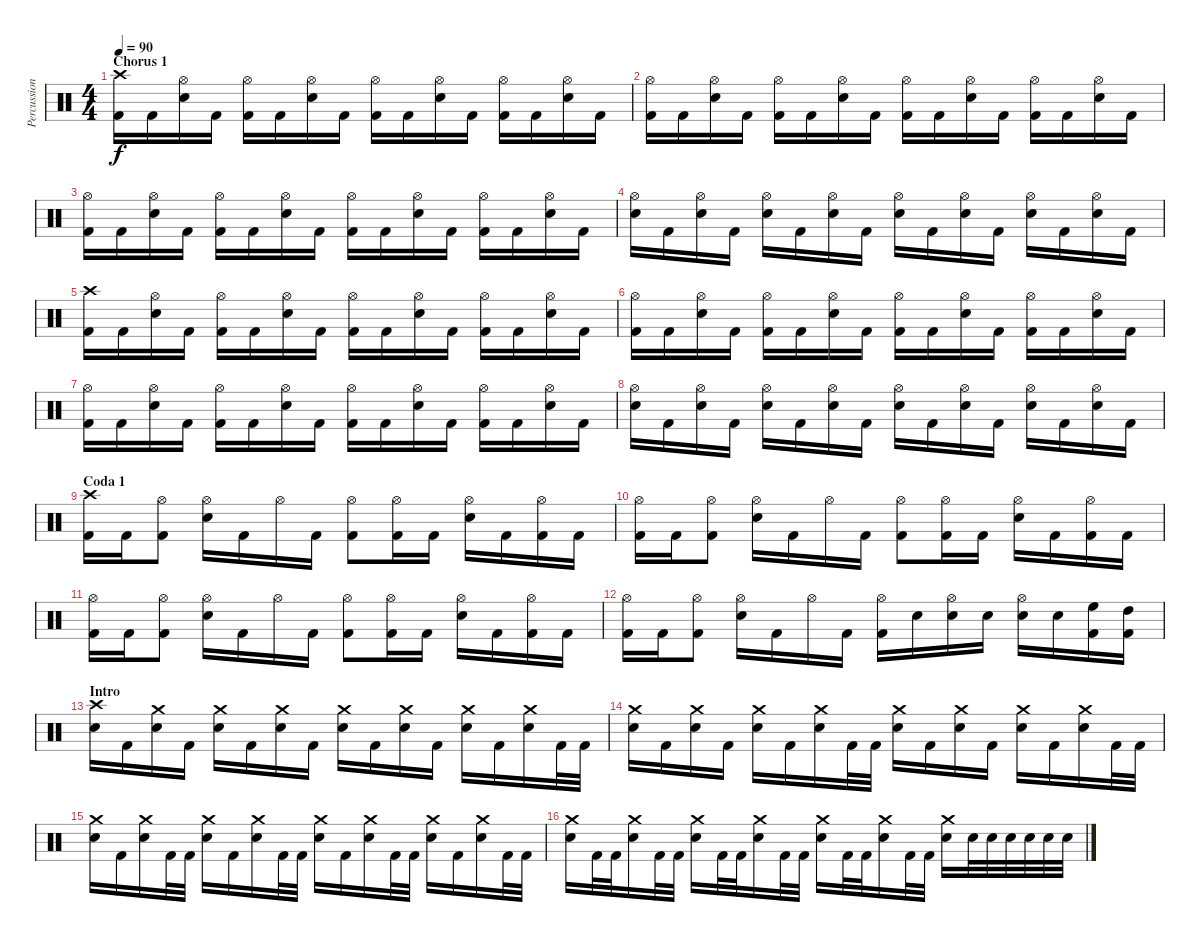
\track ("Percussion" "Percussion") {instrument percussion}
\staff {score}
\articulation defaults
\ts (4 4)
\section ("" "Chorus 1")
\tempo 90
\clef neutral
\ks c
("Kick (hit) 2" "Crash high (hit)").16{dy f} "Kick (hit) 2".16 ("Electric Snare (hit)" "Hi-Hat (open)").16 "Kick (hit) 2".16 ("Kick (hit) 2" "Hi-Hat (open)").16 "Kick (hit) 2".16 ("Electric Snare (hit)" "Hi-Hat (open)").16 "Kick (hit) 2".16 ("Kick (hit) 2" "Hi-Hat (open)").16 "Kick (hit) 2".16 ("Electric Snare (hit)" "Hi-Hat (open)").16 "Kick (hit) 2".16 ("Kick (hit) 2" "Hi-Hat (open)").16 "Kick (hit) 2".16 ("Electric Snare (hit)" "Hi-Hat (open)").16 "Kick (hit) 2".16 |
("Kick (hit) 2" "Hi-Hat (open)").16 "Kick (hit) 2".16 ("Electric Snare (hit)" "Hi-Hat (open)").16 "Kick (hit) 2".16 ("Kick (hit) 2" "Hi-Hat (open)").16 "Kick (hit) 2".16 ("Electric Snare (hit)" "Hi-Hat (open)").16 "Kick (hit) 2".16 ("Kick (hit) 2" "Hi-Hat (open)").16 "Kick (hit) 2".16 ("Electric Snare (hit)" "Hi-Hat (open)").16 "Kick (hit) 2".16 ("Kick (hit) 2" "Hi-Hat (open)").16 "Kick (hit) 2".16 ("Electric Snare (hit)" "Hi-Hat (open)").16 "Kick (hit) 2".16 |
("Kick (hit) 2" "Hi-Hat (open)").16 "Kick (hit) 2".16 ("Electric Snare (hit)" "Hi-Hat (open)").16 "Kick (hit) 2".16 ("Kick (hit) 2" "Hi-Hat (open)").16 "Kick (hit) 2".16 ("Electric Snare (hit)" "Hi-Hat (open)").16 "Kick (hit) 2".16 ("Kick (hit) 2" "Hi-Hat (open)").16 "Kick (hit) 2".16 ("Electric Snare (hit)" "Hi-Hat (open)").16 "Kick (hit) 2".16 ("Kick (hit) 2" "Hi-Hat (open)").16 "Kick (hit) 2".16 ("Electric Snare (hit)" "Hi-Hat (open)").16 "Kick (hit) 2".16 |
("Electric Snare (hit)" "Hi-Hat (open)").16 "Kick (hit) 2".16 ("Electric Snare (hit)" "Hi-Hat (open)").16 "Kick (hit) 2".16 ("Electric Snare (hit)" "Hi-Hat (open)").16 "Kick (hit) 2".16 ("Electric Snare (hit)" "Hi-Hat (open)").16 "Kick (hit) 2".16 ("Electric Snare (hit)" "Hi-Hat (open)").16 "Kick (hit) 2".16 ("Electric Snare (hit)" "Hi-Hat (open)").16 "Kick (hit) 2".16 ("Electric Snare (hit)" "Hi-Hat (open)").16 "Kick (hit) 2".16 ("Electric Snare (hit)" "Hi-Hat (open)").16 "Kick (hit) 2".16 |
("Kick (hit) 2" "Crash high (hit)").16 "Kick (hit) 2".16 ("Electric Snare (hit)" "Hi-Hat (open)").16 "Kick (hit) 2".16 ("Kick (hit) 2" "Hi-Hat (open)").16 "Kick (hit) 2".16 ("Electric Snare (hit)" "Hi-Hat (open)").16 "Kick (hit) 2".16 ("Kick (hit) 2" "Hi-Hat (open)").16 "Kick (hit) 2".16 ("Electric Snare (hit)" "Hi-Hat (open)").16 "Kick (hit) 2".16 ("Kick (hit) 2" "Hi-Hat (open)").16 "Kick (hit) 2".16 ("Electric Snare (hit)" "Hi-Hat (open)").16 "Kick (hit) 2".16 |
("Kick (hit) 2" "Hi-Hat (open)").16 "Kick (hit) 2".16 ("Electric Snare (hit)" "Hi-Hat (open)").16 "Kick (hit) 2".16 ("Kick (hit) 2" "Hi-Hat (open)").16 "Kick (hit) 2".16 ("Electric Snare (hit)" "Hi-Hat (open)").16 "Kick (hit) 2".16 ("Kick (hit) 2" "Hi-Hat (open)").16 "Kick (hit) 2".16 ("Electric Snare (hit)" "Hi-Hat (open)").16 "Kick (hit) 2".16 ("Kick (hit) 2" "Hi-Hat (open)").16 "Kick (hit) 2".16 ("Electric Snare (hit)" "Hi-Hat (open)").16 "Kick (hit) 2".16 |
("Kick (hit) 2" "Hi-Hat (open)").16 "Kick (hit) 2".16 ("Electric Snare (hit)" "Hi-Hat (open)").16 "Kick (hit) 2".16 ("Kick (hit) 2" "Hi-Hat (open)").16 "Kick (hit) 2".16 ("Electric Snare (hit)" "Hi-Hat (open)").16 "Kick (hit) 2".16 ("Kick (hit) 2" "Hi-Hat (open)").16 "Kick (hit) 2".16 ("Electric Snare (hit)" "Hi-Hat (open)").16 "Kick (hit) 2".16 ("Kick (hit) 2" "Hi-Hat (open)").16 "Kick (hit) 2".16 ("Electric Snare (hit)" "Hi-Hat (open)").16 "Kick (hit) 2".16 |
("Electric Snare (hit)" "Hi-Hat (open)").16 "Kick (hit) 2".16 ("Electric Snare (hit)" "Hi-Hat (open)").16 "Kick (hit) 2".16 ("Electric Snare (hit)" "Hi-Hat (open)").16 "Kick (hit) 2".16 ("Electric Snare (hit)" "Hi-Hat (open)").16 "Kick (hit) 2".16 ("Electric Snare (hit)" "Hi-Hat (open)").16 "Kick (hit) 2".16 ("Electric Snare (hit)" "Hi-Hat (open)").16 "Kick (hit) 2".16 ("Electric Snare (hit)" "Hi-Hat (open)").16 "Kick (hit) 2".16 ("Electric Snare (hit)" "Hi-Hat (open)").16 "Kick (hit) 2".16 |
\section ("" "Coda 1")
("Kick (hit) 2" "Crash high (hit)").16 "Kick (hit) 2".16 ("Kick (hit) 2" "Hi-Hat (open)").8 ("Electric Snare (hit)" "Hi-Hat (open)").16 "Kick (hit) 2".16 "Hi-Hat (open)".16 "Kick (hit) 2".16 ("Kick (hit) 2" "Hi-Hat (open)").8 ("Kick (hit) 2" "Hi-Hat (open)").16 "Kick (hit) 2".16 ("Electric Snare (hit)" "Hi-Hat (open)").16 "Kick (hit) 2".16 ("Kick (hit) 2" "Hi-Hat (open)").16 "Kick (hit) 2".16 |
("Kick (hit) 2" "Hi-Hat (open)").16 "Kick (hit) 2".16 ("Kick (hit) 2" "Hi-Hat (open)").8 ("Electric Snare (hit)" "Hi-Hat (open)").16 "Kick (hit) 2".16 "Hi-Hat (open)".16 "Kick (hit) 2".16 ("Kick (hit) 2" "Hi-Hat (open)").8 ("Kick (hit) 2" "Hi-Hat (open)").16 "Kick (hit) 2".16 ("Electric Snare (hit)" "Hi-Hat (open)").16 "Kick (hit) 2".16 ("Kick (hit) 2" "Hi-Hat (open)").16 "Kick (hit) 2".16 |
("Kick (hit) 2" "Hi-Hat (open)").16 "Kick (hit) 2".16 ("Kick (hit) 2" "Hi-Hat (open)").8 ("Electric Snare (hit)" "Hi-Hat (open)").16 "Kick (hit) 2".16 "Hi-Hat (open)".16 "Kick (hit) 2".16 ("Kick (hit) 2" "Hi-Hat (open)").8 ("Kick (hit) 2" "Hi-Hat (open)").16 "Kick (hit) 2".16 ("Electric Snare (hit)" "Hi-Hat (open)").16 "Kick (hit) 2".16 ("Kick (hit) 2" "Hi-Hat (open)").16 "Kick (hit) 2".16 |
("Kick (hit) 2" "Hi-Hat (open)").16 "Kick (hit) 2".16 ("Kick (hit) 2" "Hi-Hat (open)").8 ("Electric Snare (hit)" "Hi-Hat (open)").16 "Kick (hit) 2".16 "Hi-Hat (open)".16 "Kick (hit) 2".16 ("Kick (hit) 2" "Hi-Hat (open)").16 "Electric Snare (hit)".16 ("Electric Snare (hit)" "Hi-Hat (open)").16 "Electric Snare (hit)".16 ("Electric Snare (hit)" "Hi-Hat (open)").16 "Electric Snare (hit)".16 ("High Floor Tom (hit)" "Kick (hit) 2").16 ("High Tom (hit)" "Kick (hit) 2").16 |
\section ("" "Intro")
("Electric Snare (hit)" "Crash high (hit)").16 "Kick (hit) 2".16 ("Electric Snare (hit)" "Crash medium (hit)").16 "Kick (hit) 2".16 ("Electric Snare (hit)" "Crash medium (hit)").16 "Kick (hit) 2".16 ("Electric Snare (hit)" "Crash medium (hit)").16 "Kick (hit) 2".16 ("Electric Snare (hit)" "Crash medium (hit)").16 "Kick (hit) 2".16 ("Electric Snare (hit)" "Crash medium (hit)").16 "Kick (hit) 2".16 ("Electric Snare (hit)" "Crash medium (hit)").16 "Kick (hit) 2".16 ("Electric Snare (hit)" "Crash medium (hit)").16 "Kick (hit) 2".32 "Kick (hit) 2".32 |
("Electric Snare (hit)" "Crash medium (hit)").16 "Kick (hit) 2".16 ("Electric Snare (hit)" "Crash medium (hit)").16 "Kick (hit) 2".16 ("Electric Snare (hit)" "Crash medium (hit)").16 "Kick (hit) 2".16 ("Electric Snare (hit)" "Crash medium (hit)").16 "Kick (hit) 2".32 "Kick (hit) 2".32 ("Electric Snare (hit)" "Crash medium (hit)").16 "Kick (hit) 2".16 ("Electric Snare (hit)" "Crash medium (hit)").16 "Kick (hit) 2".16 ("Electric Snare (hit)" "Crash medium (hit)").16 "Kick (hit) 2".16 ("Electric Snare (hit)" "Crash medium (hit)").16 "Kick (hit) 2".32 "Kick (hit) 2".32 |
("Electric Snare (hit)" "Crash medium (hit)").16 "Kick (hit) 2".16 ("Electric Snare (hit)" "Crash medium (hit)").16 "Kick (hit) 2".32 "Kick (hit) 2".32 ("Electric Snare (hit)" "Crash medium (hit)").16 "Kick (hit) 2".16 ("Electric Snare (hit)" "Crash medium (hit)").16 "Kick (hit) 2".32 "Kick (hit) 2".32 ("Electric Snare (hit)" "Crash medium (hit)").16 "Kick (hit) 2".16 ("Electric Snare (hit)" "Crash medium (hit)").16 "Kick (hit) 2".32 "Kick (hit) 2".32 ("Electric Snare (hit)" "Crash medium (hit)").16 "Kick (hit) 2".16 ("Electric Snare (hit)" "Crash medium (hit)").16 "Kick (hit) 2".32 "Kick (hit) 2".32 |
("Electric Snare (hit)" "Crash medium (hit)").16 "Kick (hit) 2".32 "Kick (hit) 2".32 ("Electric Snare (hit)" "Crash medium (hit)").16 "Kick (hit) 2".32 "Kick (hit) 2".32 ("Electric Snare (hit)" "Crash medium (hit)").16 "Kick (hit) 2".32 "Kick (hit) 2".32 ("Electric Snare (hit)" "Crash medium (hit)").16 "Kick (hit) 2".32 "Kick (hit) 2".32 ("Electric Snare (hit)" "Crash medium (hit)").16 "Kick (hit) 2".32 "Kick (hit) 2".32 ("Electric Snare (hit)" "Crash medium (hit)").16 "Kick (hit) 2".32 "Kick (hit) 2".32 ("Electric Snare (hit)" "Crash medium (hit)").16 "Electric Snare (hit)".32 "Electric Snare (hit)".32 "Electric Snare (hit)".32 "Electric Snare (hit)".32 "Electric Snare (hit)".32 "Electric Snare (hit)".32
